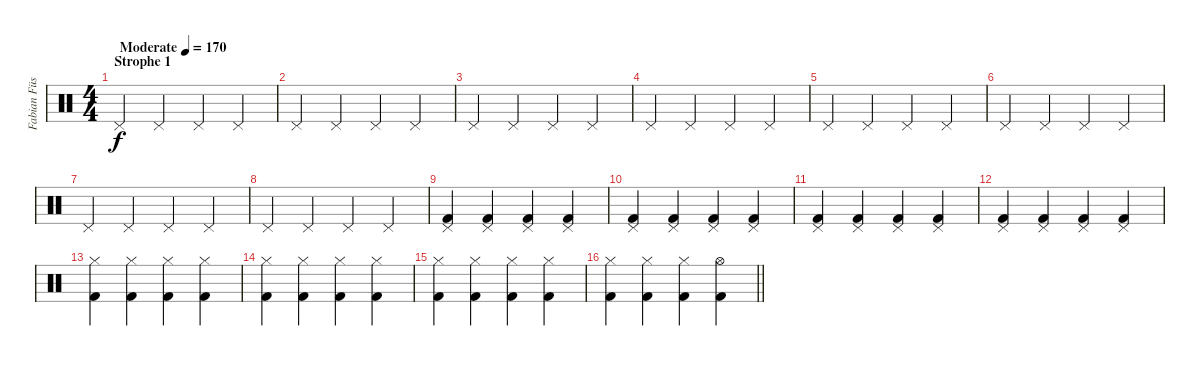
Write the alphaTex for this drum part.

\track ("Fabian Füss" "Fabian Füs") {instrument percussion}
\staff {score}
\articulation defaults
\ts (4 4)
\section ("" "Strophe 1")
\tempo (170 "Moderate")
\clef neutral
\ks c "Pedal Hi-Hat (hit)".4{dy f} "Pedal Hi-Hat (hit)".4 "Pedal Hi-Hat (hit)".4 "Pedal Hi-Hat (hit)".4
|
"Pedal Hi-Hat (hit)".4 "Pedal Hi-Hat (hit)".4 "Pedal Hi-Hat (hit)".4 "Pedal Hi-Hat (hit)".4 |
"Pedal Hi-Hat (hit)".4 "Pedal Hi-Hat (hit)".4 "Pedal Hi-Hat (hit)".4 "Pedal Hi-Hat (hit)".4 |
"Pedal Hi-Hat (hit)".4 "Pedal Hi-Hat (hit)".4 "Pedal Hi-Hat (hit)".4 "Pedal Hi-Hat (hit)".4 |
"Pedal Hi-Hat (hit)".4 "Pedal Hi-Hat (hit)".4 "Pedal Hi-Hat (hit)".4 "Pedal Hi-Hat (hit)".4 |
"Pedal Hi-Hat (hit)".4 "Pedal Hi-Hat (hit)".4 "Pedal Hi-Hat (hit)".4 "Pedal Hi-Hat (hit)".4 |
"Pedal Hi-Hat (hit)".4 "Pedal Hi-Hat (hit)".4 "Pedal Hi-Hat (hit)".4 "Pedal Hi-Hat (hit)".4 |
"Pedal Hi-Hat (hit)".4 "Pedal Hi-Hat (hit)".4 "Pedal Hi-Hat (hit)".4 "Pedal Hi-Hat (hit)".4 |
("Pedal Hi-Hat (hit)" "Kick (hit) 2").4 ("Pedal Hi-Hat (hit)" "Kick (hit) 2").4 ("Pedal Hi-Hat (hit)" "Kick (hit) 2").4 ("Pedal Hi-Hat (hit)" "Kick (hit) 2").4 |
("Pedal Hi-Hat (hit)" "Kick (hit) 2").4 ("Pedal Hi-Hat (hit)" "Kick (hit) 2").4 ("Pedal Hi-Hat (hit)" "Kick (hit) 2").4 ("Pedal Hi-Hat (hit)" "Kick (hit) 2").4 |
("Pedal Hi-Hat (hit)" "Kick (hit) 2").4 ("Pedal Hi-Hat (hit)" "Kick (hit) 2").4 ("Pedal Hi-Hat (hit)" "Kick (hit) 2").4 ("Pedal Hi-Hat (hit)" "Kick (hit) 2").4 |
("Pedal Hi-Hat (hit)" "Kick (hit) 2").4 ("Pedal Hi-Hat (hit)" "Kick (hit) 2").4 ("Pedal Hi-Hat (hit)" "Kick (hit) 2").4 ("Pedal Hi-Hat (hit)" "Kick (hit) 2").4 |
("Hi-Hat (closed)" "Kick (hit) 2").4 ("Hi-Hat (closed)" "Kick (hit) 2").4 ("Hi-Hat (closed)" "Kick (hit) 2").4 ("Hi-Hat (closed)" "Kick (hit) 2").4 |
("Hi-Hat (closed)" "Kick (hit) 2").4 ("Hi-Hat (closed)" "Kick (hit) 2").4 ("Hi-Hat (closed)" "Kick (hit) 2").4 ("Hi-Hat (closed)" "Kick (hit) 2").4 |
("Hi-Hat (closed)" "Kick (hit) 2").4 ("Hi-Hat (closed)" "Kick (hit) 2").4 ("Hi-Hat (closed)" "Kick (hit) 2").4 ("Hi-Hat (closed)" "Kick (hit) 2").4 |
\barLineRight lightlight
("Hi-Hat (closed)" "Kick (hit) 2").4 ("Hi-Hat (closed)" "Kick (hit) 2").4 ("Hi-Hat (closed)" "Kick (hit) 2").4 ("Hi-Hat (open)" "Kick (hit) 2").4
